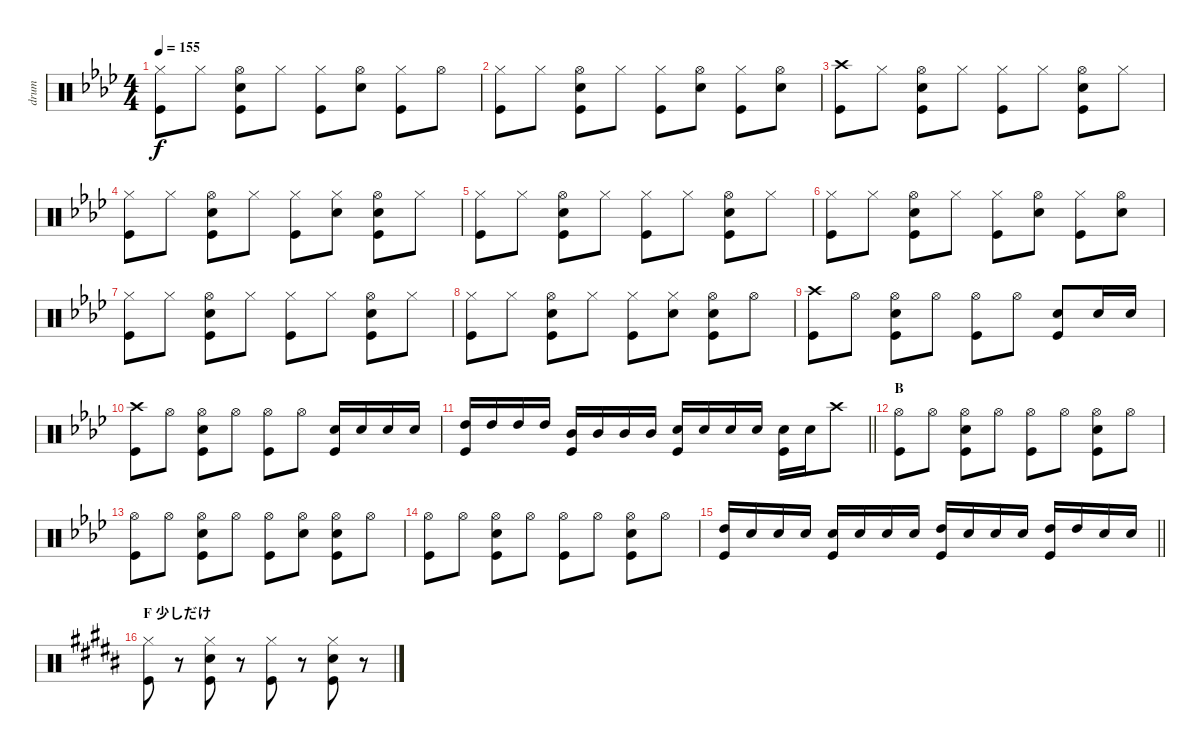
\track ("drum" "drum") {instrument percussion}
\staff {score}
\articulation defaults
\ts (4 4)
\tempo 155
\clef neutral
\ks ab
("Hi-Hat (closed)" "Kick (hit)").8{dy f} "Hi-Hat (closed)".8 ("Hi-Hat (open)" "Snare (hit) 2" "Kick (hit)").8 "Hi-Hat (closed)".8 ("Hi-Hat (closed)" "Kick (hit)").8 ("Hi-Hat (open)" "Snare (hit) 2").8 ("Hi-Hat (closed)" "Kick (hit)").8 "Hi-Hat (open)".8 |
("Hi-Hat (closed)" "Kick (hit)").8 "Hi-Hat (closed)".8 ("Hi-Hat (open)" "Snare (hit) 2" "Kick (hit)").8 "Hi-Hat (closed)".8 ("Hi-Hat (closed)" "Kick (hit)").8 ("Hi-Hat (open)" "Snare (hit) 2").8 ("Hi-Hat (closed)" "Kick (hit)").8 ("Hi-Hat (open)" "Snare (hit) 2").8 |
("Crash high (hit)" "Kick (hit)").8 "Hi-Hat (closed)".8 ("Hi-Hat (open)" "Snare (hit) 2" "Kick (hit)").8 "Hi-Hat (closed)".8 ("Hi-Hat (closed)" "Kick (hit)").8 "Hi-Hat (closed)".8 ("Hi-Hat (open)" "Snare (hit) 2" "Kick (hit)").8 "Hi-Hat (closed)".8 |
("Hi-Hat (closed)" "Kick (hit)").8 "Hi-Hat (closed)".8 ("Hi-Hat (open)" "Snare (hit) 2" "Kick (hit)").8 "Hi-Hat (closed)".8 ("Hi-Hat (closed)" "Kick (hit)").8 ("Hi-Hat (closed)" "Snare (hit) 2").8 ("Hi-Hat (open)" "Snare (hit) 2" "Kick (hit)").8 "Hi-Hat (closed)".8 |
("Hi-Hat (closed)" "Kick (hit)").8 "Hi-Hat (closed)".8 ("Hi-Hat (open)" "Snare (hit) 2" "Kick (hit)").8 "Hi-Hat (closed)".8 ("Hi-Hat (closed)" "Kick (hit)").8 "Hi-Hat (closed)".8 ("Hi-Hat (open)" "Snare (hit) 2" "Kick (hit)").8 "Hi-Hat (closed)".8 |
("Hi-Hat (closed)" "Kick (hit)").8 "Hi-Hat (closed)".8 ("Hi-Hat (open)" "Snare (hit) 2" "Kick (hit)").8 "Hi-Hat (closed)".8 ("Hi-Hat (closed)" "Kick (hit)").8 ("Hi-Hat (open)" "Snare (hit) 2").8 ("Hi-Hat (closed)" "Kick (hit)").8 ("Hi-Hat (open)" "Snare (hit) 2").8 |
("Hi-Hat (closed)" "Kick (hit)").8 "Hi-Hat (closed)".8 ("Hi-Hat (open)" "Snare (hit) 2" "Kick (hit)").8 "Hi-Hat (closed)".8 ("Hi-Hat (closed)" "Kick (hit)").8 "Hi-Hat (closed)".8 ("Hi-Hat (open)" "Snare (hit) 2" "Kick (hit)").8 "Hi-Hat (closed)".8 |
("Hi-Hat (closed)" "Kick (hit)").8 "Hi-Hat (closed)".8 ("Hi-Hat (open)" "Snare (hit) 2" "Kick (hit)").8 "Hi-Hat (closed)".8 ("Hi-Hat (closed)" "Kick (hit)").8 ("Hi-Hat (closed)" "Snare (hit) 2").8 ("Hi-Hat (open)" "Snare (hit) 2" "Kick (hit)").8 "Hi-Hat (open)".8 |
("Crash high (hit)" "Kick (hit)").8 "Hi-Hat (open)".8 ("Hi-Hat (open)" "Snare (hit) 2" "Kick (hit)").8 "Hi-Hat (open)".8 ("Hi-Hat (open)" "Kick (hit)").8 "Hi-Hat (open)".8 ("Snare (hit) 2" "Kick (hit)").8 "Snare (hit) 2".16 "Snare (hit) 2".16 |
("Crash high (hit)" "Kick (hit)").8 "Hi-Hat (open)".8 ("Hi-Hat (open)" "Snare (hit) 2" "Kick (hit)").8 "Hi-Hat (open)".8 ("Hi-Hat (open)" "Kick (hit)").8 "Hi-Hat (open)".8 ("Snare (hit) 2" "Kick (hit)").16 "Snare (hit) 2".16 "Snare (hit) 2".16 "Snare (hit) 2".16 |
\barLineRight lightlight
("High Tom (hit)" "Kick (hit)").16 "High Tom (hit)".16 "High Tom (hit)".16 "High Tom (hit)".16 ("Mid Tom (hit)" "Kick (hit)").16 "Mid Tom (hit)".16 "Mid Tom (hit)".16 "Mid Tom (hit)".16 ("Snare (hit) 2" "Kick (hit)").16 "Snare (hit) 2".16 "Snare (hit) 2".16 "Snare (hit) 2".16 ("Snare (hit) 2" "Kick (hit)").16 "Snare (hit) 2".16 "Crash high (hit)".8 |
\section ("" "B")
("Hi-Hat (open)" "Kick (hit)").8 "Hi-Hat (open)".8 ("Hi-Hat (open)" "Snare (hit) 2" "Kick (hit)").8 "Hi-Hat (open)".8 ("Hi-Hat (open)" "Kick (hit)").8 "Hi-Hat (open)".8 ("Hi-Hat (open)" "Snare (hit) 2" "Kick (hit)").8 "Hi-Hat (open)".8 |
("Hi-Hat (open)" "Kick (hit)").8 "Hi-Hat (open)".8 ("Hi-Hat (open)" "Snare (hit) 2" "Kick (hit)").8 "Hi-Hat (open)".8 ("Hi-Hat (open)" "Kick (hit)").8 ("Hi-Hat (open)" "Snare (hit) 2").8 ("Hi-Hat (open)" "Snare (hit) 2" "Kick (hit)").8 "Hi-Hat (open)".8 |
("Hi-Hat (open)" "Kick (hit)").8 "Hi-Hat (open)".8 ("Hi-Hat (open)" "Snare (hit) 2" "Kick (hit)").8 "Hi-Hat (open)".8 ("Hi-Hat (open)" "Kick (hit)").8 "Hi-Hat (open)".8 ("Hi-Hat (open)" "Snare (hit) 2" "Kick (hit)").8 "Hi-Hat (open)".8 |
\barLineRight lightlight
("High Tom (hit)" "Kick (hit)").16 "Snare (hit) 2".16 "Snare (hit) 2".16 "Snare (hit) 2".16 ("Snare (hit) 2" "Kick (hit)").16 "Snare (hit) 2".16 "Snare (hit) 2".16 "Snare (hit) 2".16 ("High Tom (hit)" "Kick (hit)").16 "Snare (hit) 2".16 "Snare (hit) 2".16 "Snare (hit) 2".16 ("High Tom (hit)" "Kick (hit)").16 "High Tom (hit)".16 "Snare (hit) 2".16 "Snare (hit) 2".16 |
\section ("" "F 少しだけ")
\ks b
("Hi-Hat (closed)" "Kick (hit)").8 r.8 ("Hi-Hat (closed)" "Snare (hit) 2" "Kick (hit)").8 r.8 ("Hi-Hat (closed)" "Kick (hit)").8 r.8 ("Hi-Hat (closed)" "Snare (hit) 2" "Kick (hit)").8 r.8
